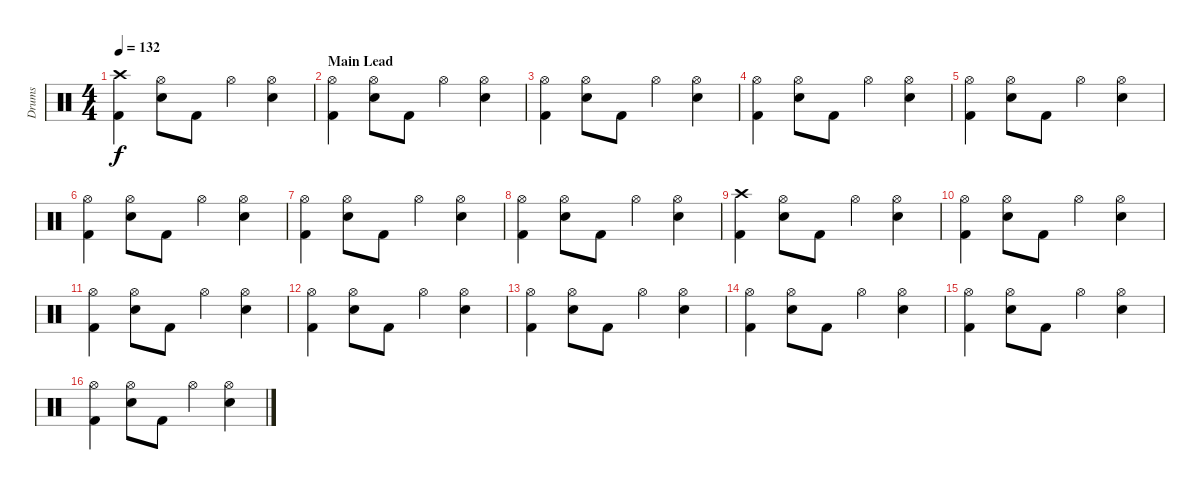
\track ("Drums" "Drums") {instrument percussion}
\staff {score}
\articulation defaults
\ts (4 4)
\tempo 132
\clef neutral
\ks c
("Kick (hit) 2" "Crash high (hit)").4{dy f} ("Snare (hit) 2" "Hi-Hat (open)").8 "Kick (hit) 2".8 "Hi-Hat (open)".4 ("Snare (hit) 2" "Hi-Hat (open)").4 |
\section ("" "Main Lead")
("Kick (hit) 2" "Hi-Hat (open)").4 ("Snare (hit) 2" "Hi-Hat (open)").8 "Kick (hit) 2".8 "Hi-Hat (open)".4 ("Snare (hit) 2" "Hi-Hat (open)").4 |
("Kick (hit) 2" "Hi-Hat (open)").4 ("Snare (hit) 2" "Hi-Hat (open)").8 "Kick (hit) 2".8 "Hi-Hat (open)".4 ("Snare (hit) 2" "Hi-Hat (open)").4 |
("Kick (hit) 2" "Hi-Hat (open)").4 ("Snare (hit) 2" "Hi-Hat (open)").8 "Kick (hit) 2".8 "Hi-Hat (open)".4 ("Snare (hit) 2" "Hi-Hat (open)").4 |
("Kick (hit) 2" "Hi-Hat (open)").4 ("Snare (hit) 2" "Hi-Hat (open)").8 "Kick (hit) 2".8 "Hi-Hat (open)".4 ("Snare (hit) 2" "Hi-Hat (open)").4 |
("Kick (hit) 2" "Hi-Hat (open)").4 ("Snare (hit) 2" "Hi-Hat (open)").8 "Kick (hit) 2".8 "Hi-Hat (open)".4 ("Snare (hit) 2" "Hi-Hat (open)").4 |
("Kick (hit) 2" "Hi-Hat (open)").4 ("Snare (hit) 2" "Hi-Hat (open)").8 "Kick (hit) 2".8 "Hi-Hat (open)".4 ("Snare (hit) 2" "Hi-Hat (open)").4 |
("Kick (hit) 2" "Hi-Hat (open)").4 ("Snare (hit) 2" "Hi-Hat (open)").8 "Kick (hit) 2".8 "Hi-Hat (open)".4 ("Snare (hit) 2" "Hi-Hat (open)").4 |
("Kick (hit) 2" "Crash high (hit)").4 ("Snare (hit) 2" "Hi-Hat (open)").8 "Kick (hit) 2".8 "Hi-Hat (open)".4 ("Snare (hit) 2" "Hi-Hat (open)").4 |
("Kick (hit) 2" "Hi-Hat (open)").4 ("Snare (hit) 2" "Hi-Hat (open)").8 "Kick (hit) 2".8 "Hi-Hat (open)".4 ("Snare (hit) 2" "Hi-Hat (open)").4 |
("Kick (hit) 2" "Hi-Hat (open)").4 ("Snare (hit) 2" "Hi-Hat (open)").8 "Kick (hit) 2".8 "Hi-Hat (open)".4 ("Snare (hit) 2" "Hi-Hat (open)").4 |
("Kick (hit) 2" "Hi-Hat (open)").4 ("Snare (hit) 2" "Hi-Hat (open)").8 "Kick (hit) 2".8 "Hi-Hat (open)".4 ("Snare (hit) 2" "Hi-Hat (open)").4 |
("Kick (hit) 2" "Hi-Hat (open)").4 ("Snare (hit) 2" "Hi-Hat (open)").8 "Kick (hit) 2".8 "Hi-Hat (open)".4 ("Snare (hit) 2" "Hi-Hat (open)").4 |
("Kick (hit) 2" "Hi-Hat (open)").4 ("Snare (hit) 2" "Hi-Hat (open)").8 "Kick (hit) 2".8 "Hi-Hat (open)".4 ("Snare (hit) 2" "Hi-Hat (open)").4 |
("Kick (hit) 2" "Hi-Hat (open)").4 ("Snare (hit) 2" "Hi-Hat (open)").8 "Kick (hit) 2".8 "Hi-Hat (open)".4 ("Snare (hit) 2" "Hi-Hat (open)").4 |
("Kick (hit) 2" "Hi-Hat (open)").4 ("Snare (hit) 2" "Hi-Hat (open)").8 "Kick (hit) 2".8 "Hi-Hat (open)".4 ("Snare (hit) 2" "Hi-Hat (open)").4
